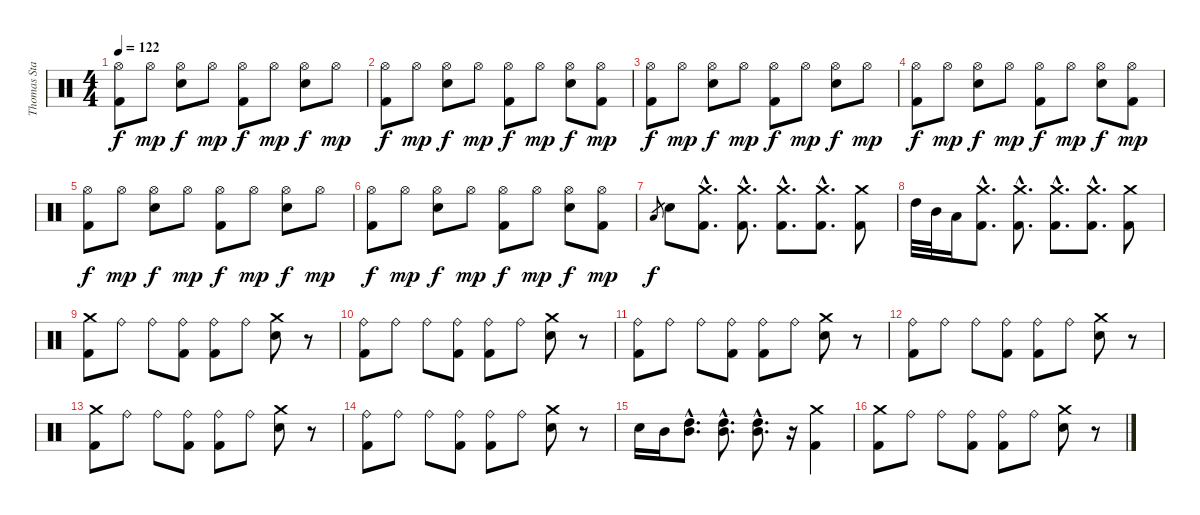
\track ("Thomas Stauch" "Thomas Sta") {instrument percussion}
\staff {score}
\articulation defaults
\ts (4 4)
\tempo 122
\clef neutral
\ks c
("Hi-Hat (open)" "Kick (hit) 2").8{dy f} "Hi-Hat (open)".8{dy mp} ("Hi-Hat (open)" "Electric Snare (hit)").8{dy f} "Hi-Hat (open)".8{dy mp} ("Hi-Hat (open)" "Kick (hit) 2").8{dy f} "Hi-Hat (open)".8{dy mp} ("Hi-Hat (open)" "Electric Snare (hit)").8{dy f} "Hi-Hat (open)".8{dy mp} |
("Hi-Hat (open)" "Kick (hit) 2").8{dy f} "Hi-Hat (open)".8{dy mp} ("Hi-Hat (open)" "Electric Snare (hit)").8{dy f} "Hi-Hat (open)".8{dy mp} ("Hi-Hat (open)" "Kick (hit) 2").8{dy f} "Hi-Hat (open)".8{dy mp} ("Hi-Hat (open)" "Electric Snare (hit)").8{dy f} ("Hi-Hat (open)" "Kick (hit) 2").8{dy mp} |
("Hi-Hat (open)" "Kick (hit) 2").8{dy f} "Hi-Hat (open)".8{dy mp} ("Hi-Hat (open)" "Electric Snare (hit)").8{dy f} "Hi-Hat (open)".8{dy mp} ("Hi-Hat (open)" "Kick (hit) 2").8{dy f} "Hi-Hat (open)".8{dy mp} ("Hi-Hat (open)" "Electric Snare (hit)").8{dy f} "Hi-Hat (open)".8{dy mp} |
("Hi-Hat (open)" "Kick (hit) 2").8{dy f} "Hi-Hat (open)".8{dy mp} ("Hi-Hat (open)" "Electric Snare (hit)").8{dy f} "Hi-Hat (open)".8{dy mp} ("Hi-Hat (open)" "Kick (hit) 2").8{dy f} "Hi-Hat (open)".8{dy mp} ("Hi-Hat (open)" "Electric Snare (hit)").8{dy f} ("Hi-Hat (open)" "Kick (hit) 2").8{dy mp} |
("Hi-Hat (open)" "Kick (hit) 2").8{dy f} "Hi-Hat (open)".8{dy mp} ("Hi-Hat (open)" "Electric Snare (hit)").8{dy f} "Hi-Hat (open)".8{dy mp} ("Hi-Hat (open)" "Kick (hit) 2").8{dy f} "Hi-Hat (open)".8{dy mp} ("Hi-Hat (open)" "Electric Snare (hit)").8{dy f} "Hi-Hat (open)".8{dy mp} |
("Hi-Hat (open)" "Kick (hit) 2").8{dy f} "Hi-Hat (open)".8{dy mp} ("Hi-Hat (open)" "Electric Snare (hit)").8{dy f} "Hi-Hat (open)".8{dy mp} ("Hi-Hat (open)" "Kick (hit) 2").8{dy f} "Hi-Hat (open)".8{dy mp} ("Hi-Hat (open)" "Electric Snare (hit)").8{dy f} ("Hi-Hat (open)" "Kick (hit) 2").8{dy mp} |
"Low Tom (hit)".8{gr dy f} "Electric Snare (hit)".8 ("Crash medium (hit)"{hac} "Kick (hit) 2"{hac}).8{d} ("Crash medium (hit)"{hac} "Kick (hit) 2"{hac}).8{d} ("Crash medium (hit)"{hac} "Kick (hit) 2"{hac}).8{d} ("Crash medium (hit)"{hac} "Kick (hit) 2"{hac}).8{d} ("Crash medium (hit)" "Kick (hit) 2").8 |
"High Tom (hit)".32 "Mid Tom (hit)".32 "Low Tom (hit)".16 ("Crash medium (hit)"{hac} "Kick (hit) 2"{hac}).8{d} ("Crash medium (hit)"{hac} "Kick (hit) 2"{hac}).8{d} ("Crash medium (hit)"{hac} "Kick (hit) 2"{hac}).8{d} ("Crash medium (hit)"{hac} "Kick (hit) 2"{hac}).8{d} ("Crash medium (hit)" "Kick (hit) 2").8 |
("Crash medium (hit)" "Kick (hit) 2").8 "Ride (bell)".8 "Ride (bell)".8 ("Ride (bell)" "Kick (hit) 2").8 ("Ride (bell)" "Kick (hit) 2").8 "Ride (bell)".8 ("Crash medium (hit)" "Electric Snare (hit)").8 r.8 |
("Ride (bell)" "Kick (hit) 2").8 "Ride (bell)".8 "Ride (bell)".8 ("Ride (bell)" "Kick (hit) 2").8 ("Ride (bell)" "Kick (hit) 2").8 "Ride (bell)".8 ("Crash medium (hit)" "Electric Snare (hit)").8 r.8 |
("Ride (bell)" "Kick (hit) 2").8 "Ride (bell)".8 "Ride (bell)".8 ("Ride (bell)" "Kick (hit) 2").8 ("Ride (bell)" "Kick (hit) 2").8 "Ride (bell)".8 ("Crash medium (hit)" "Electric Snare (hit)").8 r.8 |
("Ride (bell)" "Kick (hit) 2").8 "Ride (bell)".8 "Ride (bell)".8 ("Ride (bell)" "Kick (hit) 2").8 ("Ride (bell)" "Kick (hit) 2").8 "Ride (bell)".8 ("Crash medium (hit)" "Electric Snare (hit)").8 r.8 |
("Crash medium (hit)" "Kick (hit) 2").8 "Ride (bell)".8 "Ride (bell)".8 ("Ride (bell)" "Kick (hit) 2").8 ("Ride (bell)" "Kick (hit) 2").8 "Ride (bell)".8 ("Crash medium (hit)" "Electric Snare (hit)").8 r.8 |
("Ride (bell)" "Kick (hit) 2").8 "Ride (bell)".8 "Ride (bell)".8 ("Ride (bell)" "Kick (hit) 2").8 ("Ride (bell)" "Kick (hit) 2").8 "Ride (bell)".8 ("Crash medium (hit)" "Electric Snare (hit)").8 r.8 |
"Electric Snare (hit)".16 "Mid Tom (hit)".16 ("Mid Tom (hit)"{hac} "High Tom (hit)"{hac}).8{d} ("Mid Tom (hit)"{hac} "High Tom (hit)"{hac}).8{d} ("Mid Tom (hit)"{hac} "High Tom (hit)"{hac}).8{d} r.16 ("Crash medium (hit)" "Kick (hit) 2").4 |
("Crash medium (hit)" "Kick (hit) 2").8 "Ride (bell)".8 "Ride (bell)".8 ("Ride (bell)" "Kick (hit) 2").8 ("Ride (bell)" "Kick (hit) 2").8 "Ride (bell)".8 ("Crash medium (hit)" "Electric Snare (hit)").8 r.8
